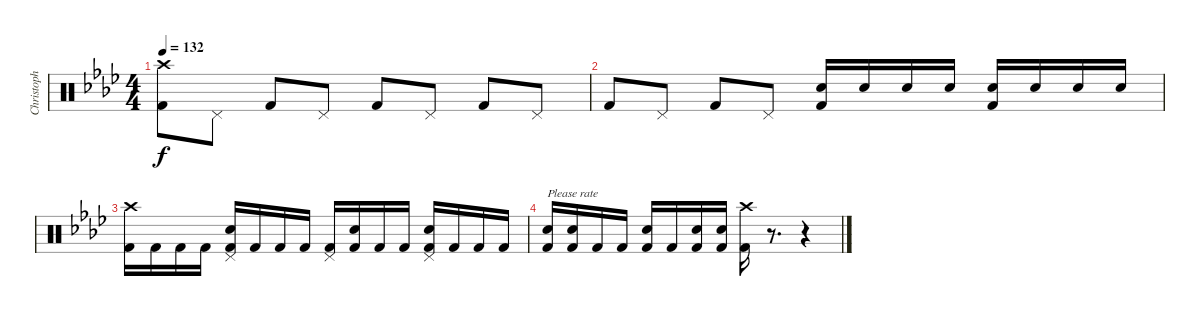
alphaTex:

\track ("Christoph Doom Schneider - Drums" "Christoph ") {instrument percussion}
\staff {score}
\articulation defaults
\ts (4 4)
\tempo 132
\clef neutral
\ks fminor
("Crash high (hit)" "Kick (hit) 2").8{dy f} "Pedal Hi-Hat (hit)".8 "Kick (hit) 2".8 "Pedal Hi-Hat (hit)".8 "Kick (hit) 2".8 "Pedal Hi-Hat (hit)".8 "Kick (hit) 2".8 "Pedal Hi-Hat (hit)".8 |
"Kick (hit) 2".8 "Pedal Hi-Hat (hit)".8 "Kick (hit) 2".8 "Pedal Hi-Hat (hit)".8 ("Snare (hit) 2" "Kick (hit) 2").16 "Snare (hit) 2".16 "Snare (hit) 2".16 "Snare (hit) 2".16 ("Snare (hit) 2" "Kick (hit) 2").16 "Snare (hit) 2".16 "Snare (hit) 2".16 "Snare (hit) 2".16 |
("Crash high (hit)" "Kick (hit) 2").16 "Kick (hit) 2".16 "Kick (hit) 2".16 "Kick (hit) 2".16 ("Pedal Hi-Hat (hit)" "Snare (hit) 2" "Kick (hit) 2").16 "Kick (hit) 2".16 "Kick (hit) 2".16 "Kick (hit) 2".16 ("Pedal Hi-Hat (hit)" "Kick (hit) 2").16 ("Snare (hit) 2" "Kick (hit) 2").16 "Kick (hit) 2".16 "Kick (hit) 2".16 ("Pedal Hi-Hat (hit)" "Snare (hit) 2" "Kick (hit) 2").16 "Kick (hit) 2".16 "Kick (hit) 2".16 "Kick (hit) 2".16 |
("Snare (hit) 2" "Kick (hit) 2").16{txt "Please rate"} ("Snare (hit) 2" "Kick (hit) 2").16 "Kick (hit) 2".16 "Kick (hit) 2".16 ("Snare (hit) 2" "Kick (hit) 2").16 "Kick (hit) 2".16 ("Snare (hit) 2" "Kick (hit) 2").16 ("Snare (hit) 2" "Kick (hit) 2").16 ("Crash high (hit)" "Kick (hit) 2").16 r.8{d} r.4
